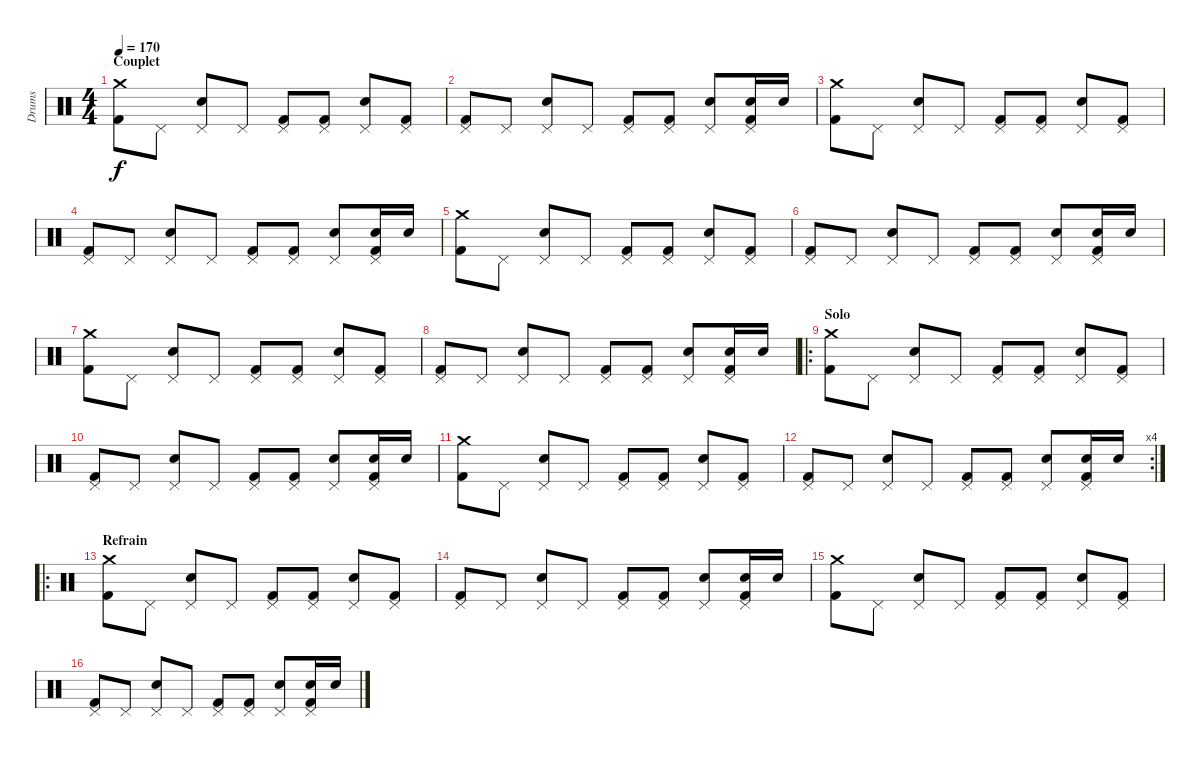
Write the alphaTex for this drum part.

\track ("Drums" "Drums") {instrument percussion}
\staff {score}
\articulation defaults
\ts (4 4)
\section ("" "Couplet")
\tempo 170
\clef neutral
\ks c
("Crash medium (hit)" "Kick (hit) 2").8{dy f} "Pedal Hi-Hat (hit)".8 ("Pedal Hi-Hat (hit)" "Snare (hit) 2").8 "Pedal Hi-Hat (hit)".8 ("Pedal Hi-Hat (hit)" "Kick (hit) 2").8 ("Pedal Hi-Hat (hit)" "Kick (hit) 2").8 ("Pedal Hi-Hat (hit)" "Snare (hit) 2").8 ("Pedal Hi-Hat (hit)" "Kick (hit) 2").8 |
("Pedal Hi-Hat (hit)" "Kick (hit) 2").8 "Pedal Hi-Hat (hit)".8 ("Pedal Hi-Hat (hit)" "Snare (hit) 2").8 "Pedal Hi-Hat (hit)".8 ("Pedal Hi-Hat (hit)" "Kick (hit) 2").8 ("Pedal Hi-Hat (hit)" "Kick (hit) 2").8 ("Pedal Hi-Hat (hit)" "Snare (hit) 2").8 ("Pedal Hi-Hat (hit)" "Snare (hit) 2" "Kick (hit) 2").16 "Snare (hit) 2".16 |
("Crash medium (hit)" "Kick (hit) 2").8 "Pedal Hi-Hat (hit)".8 ("Pedal Hi-Hat (hit)" "Snare (hit) 2").8 "Pedal Hi-Hat (hit)".8 ("Pedal Hi-Hat (hit)" "Kick (hit) 2").8 ("Pedal Hi-Hat (hit)" "Kick (hit) 2").8 ("Pedal Hi-Hat (hit)" "Snare (hit) 2").8 ("Pedal Hi-Hat (hit)" "Kick (hit) 2").8 |
("Pedal Hi-Hat (hit)" "Kick (hit) 2").8 "Pedal Hi-Hat (hit)".8 ("Pedal Hi-Hat (hit)" "Snare (hit) 2").8 "Pedal Hi-Hat (hit)".8 ("Pedal Hi-Hat (hit)" "Kick (hit) 2").8 ("Pedal Hi-Hat (hit)" "Kick (hit) 2").8 ("Pedal Hi-Hat (hit)" "Snare (hit) 2").8 ("Pedal Hi-Hat (hit)" "Snare (hit) 2" "Kick (hit) 2").16 "Snare (hit) 2".16 |
("Crash medium (hit)" "Kick (hit) 2").8 "Pedal Hi-Hat (hit)".8 ("Pedal Hi-Hat (hit)" "Snare (hit) 2").8 "Pedal Hi-Hat (hit)".8 ("Pedal Hi-Hat (hit)" "Kick (hit) 2").8 ("Pedal Hi-Hat (hit)" "Kick (hit) 2").8 ("Pedal Hi-Hat (hit)" "Snare (hit) 2").8 ("Pedal Hi-Hat (hit)" "Kick (hit) 2").8 |
("Pedal Hi-Hat (hit)" "Kick (hit) 2").8 "Pedal Hi-Hat (hit)".8 ("Pedal Hi-Hat (hit)" "Snare (hit) 2").8 "Pedal Hi-Hat (hit)".8 ("Pedal Hi-Hat (hit)" "Kick (hit) 2").8 ("Pedal Hi-Hat (hit)" "Kick (hit) 2").8 ("Pedal Hi-Hat (hit)" "Snare (hit) 2").8 ("Pedal Hi-Hat (hit)" "Snare (hit) 2" "Kick (hit) 2").16 "Snare (hit) 2".16 |
("Crash medium (hit)" "Kick (hit) 2").8 "Pedal Hi-Hat (hit)".8 ("Pedal Hi-Hat (hit)" "Snare (hit) 2").8 "Pedal Hi-Hat (hit)".8 ("Pedal Hi-Hat (hit)" "Kick (hit) 2").8 ("Pedal Hi-Hat (hit)" "Kick (hit) 2").8 ("Pedal Hi-Hat (hit)" "Snare (hit) 2").8 ("Pedal Hi-Hat (hit)" "Kick (hit) 2").8 |
("Pedal Hi-Hat (hit)" "Kick (hit) 2").8 "Pedal Hi-Hat (hit)".8 ("Pedal Hi-Hat (hit)" "Snare (hit) 2").8 "Pedal Hi-Hat (hit)".8 ("Pedal Hi-Hat (hit)" "Kick (hit) 2").8 ("Pedal Hi-Hat (hit)" "Kick (hit) 2").8 ("Pedal Hi-Hat (hit)" "Snare (hit) 2").8 ("Pedal Hi-Hat (hit)" "Snare (hit) 2" "Kick (hit) 2").16 "Snare (hit) 2".16 |
\ro
\section ("" "Solo")
("Crash medium (hit)" "Kick (hit) 2").8 "Pedal Hi-Hat (hit)".8 ("Pedal Hi-Hat (hit)" "Snare (hit) 2").8 "Pedal Hi-Hat (hit)".8 ("Pedal Hi-Hat (hit)" "Kick (hit) 2").8 ("Pedal Hi-Hat (hit)" "Kick (hit) 2").8 ("Pedal Hi-Hat (hit)" "Snare (hit) 2").8 ("Pedal Hi-Hat (hit)" "Kick (hit) 2").8 |
("Pedal Hi-Hat (hit)" "Kick (hit) 2").8 "Pedal Hi-Hat (hit)".8 ("Pedal Hi-Hat (hit)" "Snare (hit) 2").8 "Pedal Hi-Hat (hit)".8 ("Pedal Hi-Hat (hit)" "Kick (hit) 2").8 ("Pedal Hi-Hat (hit)" "Kick (hit) 2").8 ("Pedal Hi-Hat (hit)" "Snare (hit) 2").8 ("Pedal Hi-Hat (hit)" "Snare (hit) 2" "Kick (hit) 2").16 "Snare (hit) 2".16 |
("Crash medium (hit)" "Kick (hit) 2").8 "Pedal Hi-Hat (hit)".8 ("Pedal Hi-Hat (hit)" "Snare (hit) 2").8 "Pedal Hi-Hat (hit)".8 ("Pedal Hi-Hat (hit)" "Kick (hit) 2").8 ("Pedal Hi-Hat (hit)" "Kick (hit) 2").8 ("Pedal Hi-Hat (hit)" "Snare (hit) 2").8 ("Pedal Hi-Hat (hit)" "Kick (hit) 2").8 |
\rc 4
("Pedal Hi-Hat (hit)" "Kick (hit) 2").8 "Pedal Hi-Hat (hit)".8 ("Pedal Hi-Hat (hit)" "Snare (hit) 2").8 "Pedal Hi-Hat (hit)".8 ("Pedal Hi-Hat (hit)" "Kick (hit) 2").8 ("Pedal Hi-Hat (hit)" "Kick (hit) 2").8 ("Pedal Hi-Hat (hit)" "Snare (hit) 2").8 ("Pedal Hi-Hat (hit)" "Snare (hit) 2" "Kick (hit) 2").16 "Snare (hit) 2".16 |
\ro
\section ("" "Refrain")
("Crash medium (hit)" "Kick (hit) 2").8 "Pedal Hi-Hat (hit)".8 ("Pedal Hi-Hat (hit)" "Snare (hit) 2").8 "Pedal Hi-Hat (hit)".8 ("Pedal Hi-Hat (hit)" "Kick (hit) 2").8 ("Pedal Hi-Hat (hit)" "Kick (hit) 2").8 ("Pedal Hi-Hat (hit)" "Snare (hit) 2").8 ("Pedal Hi-Hat (hit)" "Kick (hit) 2").8 |
("Pedal Hi-Hat (hit)" "Kick (hit) 2").8 "Pedal Hi-Hat (hit)".8 ("Pedal Hi-Hat (hit)" "Snare (hit) 2").8 "Pedal Hi-Hat (hit)".8 ("Pedal Hi-Hat (hit)" "Kick (hit) 2").8 ("Pedal Hi-Hat (hit)" "Kick (hit) 2").8 ("Pedal Hi-Hat (hit)" "Snare (hit) 2").8 ("Pedal Hi-Hat (hit)" "Snare (hit) 2" "Kick (hit) 2").16 "Snare (hit) 2".16 |
("Crash medium (hit)" "Kick (hit) 2").8 "Pedal Hi-Hat (hit)".8 ("Pedal Hi-Hat (hit)" "Snare (hit) 2").8 "Pedal Hi-Hat (hit)".8 ("Pedal Hi-Hat (hit)" "Kick (hit) 2").8 ("Pedal Hi-Hat (hit)" "Kick (hit) 2").8 ("Pedal Hi-Hat (hit)" "Snare (hit) 2").8 ("Pedal Hi-Hat (hit)" "Kick (hit) 2").8 |
("Pedal Hi-Hat (hit)" "Kick (hit) 2").8 "Pedal Hi-Hat (hit)".8 ("Pedal Hi-Hat (hit)" "Snare (hit) 2").8 "Pedal Hi-Hat (hit)".8 ("Pedal Hi-Hat (hit)" "Kick (hit) 2").8 ("Pedal Hi-Hat (hit)" "Kick (hit) 2").8 ("Pedal Hi-Hat (hit)" "Snare (hit) 2").8 ("Pedal Hi-Hat (hit)" "Snare (hit) 2" "Kick (hit) 2").16 "Snare (hit) 2".16
